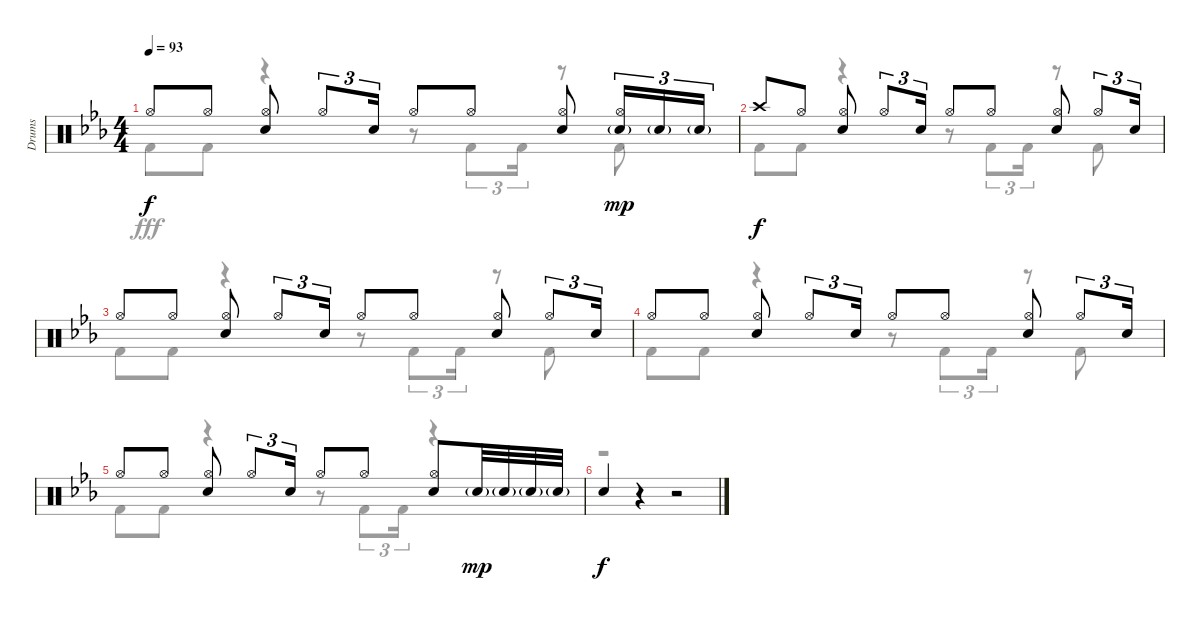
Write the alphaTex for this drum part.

\track ("Drums" "Drums") {instrument percussion}
\staff {score}
\articulation defaults
\voice
\ts (4 4)
\tempo 93
\clef neutral
\ks eb "Hi-Hat (open)".8{dy f} "Hi-Hat (open)".8
("Hi-Hat (open)" "Snare (hit) 2").8 "Hi-Hat (open)".8{tu (3 2)} "Snare (hit) 2".16{tu (3 2)} "Hi-Hat (open)".8 "Hi-Hat (open)".8 ("Hi-Hat (open)" "Snare (hit) 2").8 ("Hi-Hat (open)" "Snare (hit) 2"{g}).16{tu (3 2) dy mp} "Snare (hit) 2"{g}.16{tu (3 2)} "Snare (hit) 2"{g}.16{tu (3 2)} |
"Crash high (hit)".8{dy f} "Hi-Hat (open)".8 ("Hi-Hat (open)" "Snare (hit) 2").8 "Hi-Hat (open)".8{tu (3 2)} "Snare (hit) 2".16{tu (3 2)} "Hi-Hat (open)".8 "Hi-Hat (open)".8 ("Hi-Hat (open)" "Snare (hit) 2").8 "Hi-Hat (open)".8{tu (3 2)} "Snare (hit) 2".16{tu (3 2)} |
"Hi-Hat (open)".8 "Hi-Hat (open)".8 ("Hi-Hat (open)" "Snare (hit) 2").8 "Hi-Hat (open)".8{tu (3 2)} "Snare (hit) 2".16{tu (3 2)} "Hi-Hat (open)".8 "Hi-Hat (open)".8 ("Hi-Hat (open)" "Snare (hit) 2").8 "Hi-Hat (open)".8{tu (3 2)} "Snare (hit) 2".16{tu (3 2)} |
"Hi-Hat (open)".8 "Hi-Hat (open)".8 ("Hi-Hat (open)" "Snare (hit) 2").8 "Hi-Hat (open)".8{tu (3 2)} "Snare (hit) 2".16{tu (3 2)} "Hi-Hat (open)".8 "Hi-Hat (open)".8 ("Hi-Hat (open)" "Snare (hit) 2").8 "Hi-Hat (open)".8{tu (3 2)} "Snare (hit) 2".16{tu (3 2)} |
"Hi-Hat (open)".8 "Hi-Hat (open)".8 ("Hi-Hat (open)" "Snare (hit) 2").8 "Hi-Hat (open)".8{tu (3 2)} "Snare (hit) 2".16{tu (3 2)} "Hi-Hat (open)".8 "Hi-Hat (open)".8 ("Hi-Hat (open)" "Snare (hit) 2").8 "Snare (hit) 2"{g}.32{dy mp} "Snare (hit) 2"{g}.32 "Snare (hit) 2"{g}.32 "Snare (hit) 2"{g}.32 |
"Snare (hit) 2".4{dy f} r.4 r.2
\voice
\clef neutral
\ottava regular
\simile none
\ks eb "Kick (hit) 2".8{dy fff} "Kick (hit) 2".8
r.4 r.8 "Kick (hit) 2".8{tu (3 2)} "Kick (hit) 2".16{tu (3 2)} r.8 "Kick (hit) 2".8 |
"Kick (hit) 2".8 "Kick (hit) 2".8 r.4 r.8 "Kick (hit) 2".8{tu (3 2)} "Kick (hit) 2".16{tu (3 2)} r.8 "Kick (hit) 2".8 |
"Kick (hit) 2".8 "Kick (hit) 2".8 r.4 r.8 "Kick (hit) 2".8{tu (3 2)} "Kick (hit) 2".16{tu (3 2)} r.8 "Kick (hit) 2".8 |
"Kick (hit) 2".8 "Kick (hit) 2".8 r.4 r.8 "Kick (hit) 2".8{tu (3 2)} "Kick (hit) 2".16{tu (3 2)} r.8 "Kick (hit) 2".8 |
"Kick (hit) 2".8 "Kick (hit) 2".8 r.4 r.8 "Kick (hit) 2".8{tu (3 2)} "Kick (hit) 2".16{tu (3 2)} r.4 |
r.1
